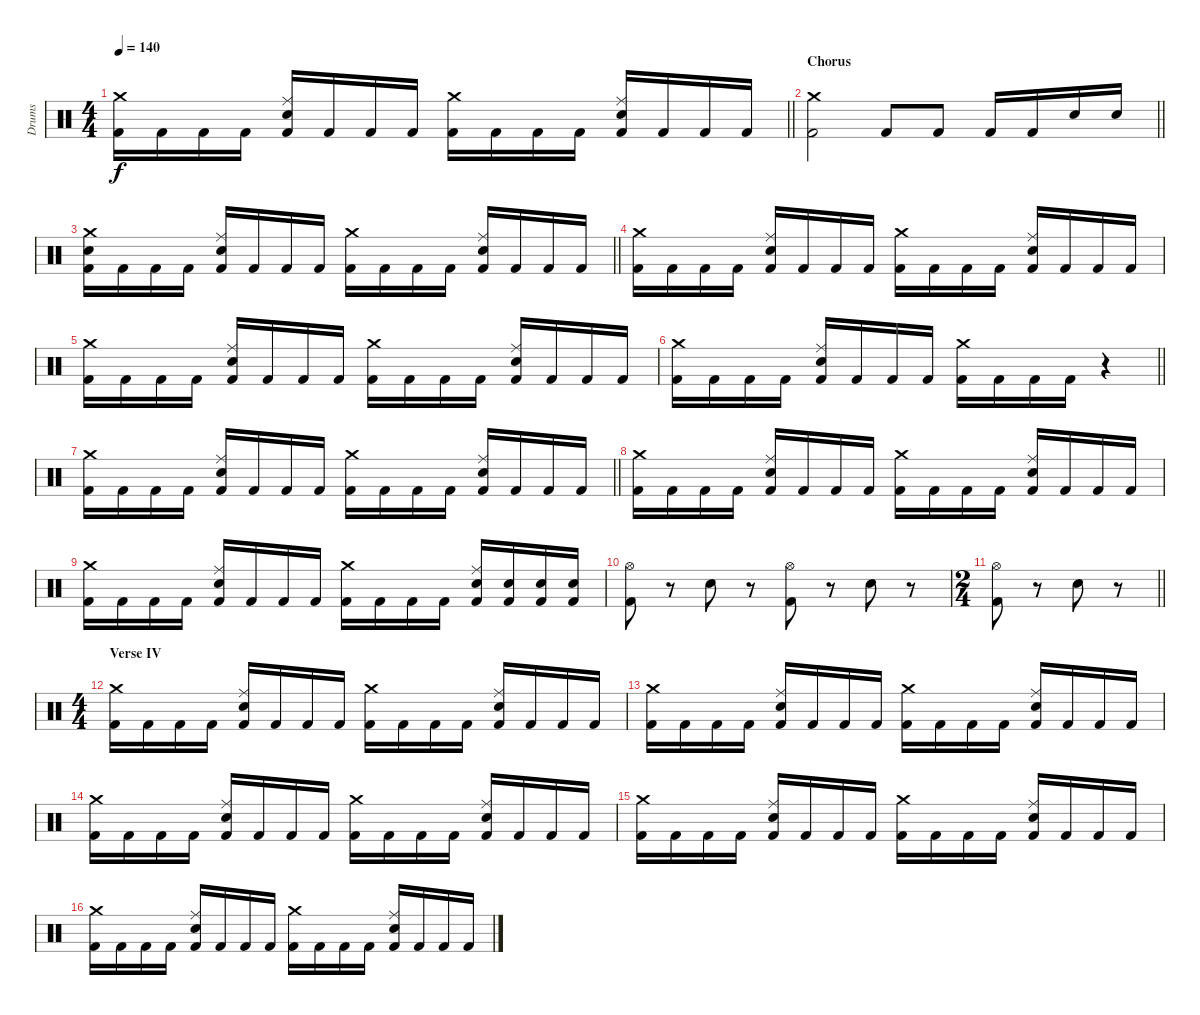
\track ("Drums" "Drums") {instrument percussion}
\staff {score}
\articulation defaults
\ts (4 4)
\tempo 140
\clef neutral
\barLineRight lightlight
\ks c
("Crash medium (hit)" "Kick (hit) 2").16{dy f} "Kick (hit) 2".16 "Kick (hit) 2".16 "Kick (hit) 2".16 ("Ride (middle)" "Snare (hit) 2" "Kick (hit) 2").16 "Kick (hit) 2".16 "Kick (hit) 2".16 "Kick (hit) 2".16 ("Crash medium (hit)" "Kick (hit) 2").16 "Kick (hit) 2".16 "Kick (hit) 2".16 "Kick (hit) 2".16 ("Ride (middle)" "Snare (hit) 2" "Kick (hit) 2").16 "Kick (hit) 2".16 "Kick (hit) 2".16 "Kick (hit) 2".16 |
\section ("" "Chorus")
\barLineRight lightlight
("Crash medium (hit)" "Kick (hit) 2").2 "Kick (hit) 2".8 "Kick (hit) 2".8 "Kick (hit) 2".16 "Kick (hit) 2".16 "Snare (hit) 2".16 "Snare (hit) 2".16 |
\barLineRight lightlight
("Crash medium (hit)" "Snare (hit) 2" "Kick (hit) 2").16 "Kick (hit) 2".16 "Kick (hit) 2".16 "Kick (hit) 2".16 ("Ride (middle)" "Snare (hit) 2" "Kick (hit) 2").16 "Kick (hit) 2".16 "Kick (hit) 2".16 "Kick (hit) 2".16 ("Crash medium (hit)" "Kick (hit) 2").16 "Kick (hit) 2".16 "Kick (hit) 2".16 "Kick (hit) 2".16 ("Ride (middle)" "Snare (hit) 2" "Kick (hit) 2").16 "Kick (hit) 2".16 "Kick (hit) 2".16 "Kick (hit) 2".16 |
("Crash medium (hit)" "Kick (hit) 2").16 "Kick (hit) 2".16 "Kick (hit) 2".16 "Kick (hit) 2".16 ("Ride (middle)" "Snare (hit) 2" "Kick (hit) 2").16 "Kick (hit) 2".16 "Kick (hit) 2".16 "Kick (hit) 2".16 ("Crash medium (hit)" "Kick (hit) 2").16 "Kick (hit) 2".16 "Kick (hit) 2".16 "Kick (hit) 2".16 ("Ride (middle)" "Snare (hit) 2" "Kick (hit) 2").16 "Kick (hit) 2".16 "Kick (hit) 2".16 "Kick (hit) 2".16 |
("Crash medium (hit)" "Kick (hit) 2").16 "Kick (hit) 2".16 "Kick (hit) 2".16 "Kick (hit) 2".16 ("Ride (middle)" "Snare (hit) 2" "Kick (hit) 2").16 "Kick (hit) 2".16 "Kick (hit) 2".16 "Kick (hit) 2".16 ("Crash medium (hit)" "Kick (hit) 2").16 "Kick (hit) 2".16 "Kick (hit) 2".16 "Kick (hit) 2".16 ("Ride (middle)" "Snare (hit) 2" "Kick (hit) 2").16 "Kick (hit) 2".16 "Kick (hit) 2".16 "Kick (hit) 2".16 |
\barLineRight lightlight
("Crash medium (hit)" "Kick (hit) 2").16 "Kick (hit) 2".16 "Kick (hit) 2".16 "Kick (hit) 2".16 ("Ride (middle)" "Snare (hit) 2" "Kick (hit) 2").16 "Kick (hit) 2".16 "Kick (hit) 2".16 "Kick (hit) 2".16 ("Crash medium (hit)" "Kick (hit) 2").16 "Kick (hit) 2".16 "Kick (hit) 2".16 "Kick (hit) 2".16 r.4 |
\barLineRight lightlight
("Crash medium (hit)" "Kick (hit) 2").16 "Kick (hit) 2".16 "Kick (hit) 2".16 "Kick (hit) 2".16 ("Ride (middle)" "Snare (hit) 2" "Kick (hit) 2").16 "Kick (hit) 2".16 "Kick (hit) 2".16 "Kick (hit) 2".16 ("Crash medium (hit)" "Kick (hit) 2").16 "Kick (hit) 2".16 "Kick (hit) 2".16 "Kick (hit) 2".16 ("Ride (middle)" "Snare (hit) 2" "Kick (hit) 2").16 "Kick (hit) 2".16 "Kick (hit) 2".16 "Kick (hit) 2".16 |
("Crash medium (hit)" "Kick (hit) 2").16 "Kick (hit) 2".16 "Kick (hit) 2".16 "Kick (hit) 2".16 ("Ride (middle)" "Snare (hit) 2" "Kick (hit) 2").16 "Kick (hit) 2".16 "Kick (hit) 2".16 "Kick (hit) 2".16 ("Crash medium (hit)" "Kick (hit) 2").16 "Kick (hit) 2".16 "Kick (hit) 2".16 "Kick (hit) 2".16 ("Ride (middle)" "Snare (hit) 2" "Kick (hit) 2").16 "Kick (hit) 2".16 "Kick (hit) 2".16 "Kick (hit) 2".16 |
("Crash medium (hit)" "Kick (hit) 2").16 "Kick (hit) 2".16 "Kick (hit) 2".16 "Kick (hit) 2".16 ("Ride (middle)" "Snare (hit) 2" "Kick (hit) 2").16 "Kick (hit) 2".16 "Kick (hit) 2".16 "Kick (hit) 2".16 ("Crash medium (hit)" "Kick (hit) 2").16 "Kick (hit) 2".16 "Kick (hit) 2".16 "Kick (hit) 2".16 ("Ride (middle)" "Snare (hit) 2" "Kick (hit) 2").16 ("Snare (hit) 2" "Kick (hit) 2").16 ("Snare (hit) 2" "Kick (hit) 2").16 ("Snare (hit) 2" "Kick (hit) 2").16 |
("Hi-Hat (open)" "Kick (hit) 2").8 r.8 "Snare (hit) 2".8 r.8 ("Hi-Hat (open)" "Kick (hit) 2").8 r.8 "Snare (hit) 2".8 r.8 |
\ts (2 4)
\barLineRight lightlight
("Hi-Hat (open)" "Kick (hit) 2").8 r.8 "Snare (hit) 2".8 r.8 |
\ts (4 4)
\section ("" "Verse IV")
("Crash medium (hit)" "Kick (hit) 2").16 "Kick (hit) 2".16 "Kick (hit) 2".16 "Kick (hit) 2".16 ("Ride (middle)" "Snare (hit) 2" "Kick (hit) 2").16 "Kick (hit) 2".16 "Kick (hit) 2".16 "Kick (hit) 2".16 ("Crash medium (hit)" "Kick (hit) 2").16 "Kick (hit) 2".16 "Kick (hit) 2".16 "Kick (hit) 2".16 ("Ride (middle)" "Snare (hit) 2" "Kick (hit) 2").16 "Kick (hit) 2".16 "Kick (hit) 2".16 "Kick (hit) 2".16 |
("Crash medium (hit)" "Kick (hit) 2").16 "Kick (hit) 2".16 "Kick (hit) 2".16 "Kick (hit) 2".16 ("Ride (middle)" "Snare (hit) 2" "Kick (hit) 2").16 "Kick (hit) 2".16 "Kick (hit) 2".16 "Kick (hit) 2".16 ("Crash medium (hit)" "Kick (hit) 2").16 "Kick (hit) 2".16 "Kick (hit) 2".16 "Kick (hit) 2".16 ("Ride (middle)" "Snare (hit) 2" "Kick (hit) 2").16 "Kick (hit) 2".16 "Kick (hit) 2".16 "Kick (hit) 2".16 |
("Crash medium (hit)" "Kick (hit) 2").16 "Kick (hit) 2".16 "Kick (hit) 2".16 "Kick (hit) 2".16 ("Ride (middle)" "Snare (hit) 2" "Kick (hit) 2").16 "Kick (hit) 2".16 "Kick (hit) 2".16 "Kick (hit) 2".16 ("Crash medium (hit)" "Kick (hit) 2").16 "Kick (hit) 2".16 "Kick (hit) 2".16 "Kick (hit) 2".16 ("Ride (middle)" "Snare (hit) 2" "Kick (hit) 2").16 "Kick (hit) 2".16 "Kick (hit) 2".16 "Kick (hit) 2".16 |
("Crash medium (hit)" "Kick (hit) 2").16 "Kick (hit) 2".16 "Kick (hit) 2".16 "Kick (hit) 2".16 ("Ride (middle)" "Snare (hit) 2" "Kick (hit) 2").16 "Kick (hit) 2".16 "Kick (hit) 2".16 "Kick (hit) 2".16 ("Crash medium (hit)" "Kick (hit) 2").16 "Kick (hit) 2".16 "Kick (hit) 2".16 "Kick (hit) 2".16 ("Ride (middle)" "Snare (hit) 2" "Kick (hit) 2").16 "Kick (hit) 2".16 "Kick (hit) 2".16 "Kick (hit) 2".16 |
("Crash medium (hit)" "Kick (hit) 2").16 "Kick (hit) 2".16 "Kick (hit) 2".16 "Kick (hit) 2".16 ("Ride (middle)" "Snare (hit) 2" "Kick (hit) 2").16 "Kick (hit) 2".16 "Kick (hit) 2".16 "Kick (hit) 2".16 ("Crash medium (hit)" "Kick (hit) 2").16 "Kick (hit) 2".16 "Kick (hit) 2".16 "Kick (hit) 2".16 ("Ride (middle)" "Snare (hit) 2" "Kick (hit) 2").16 "Kick (hit) 2".16 "Kick (hit) 2".16 "Kick (hit) 2".16
